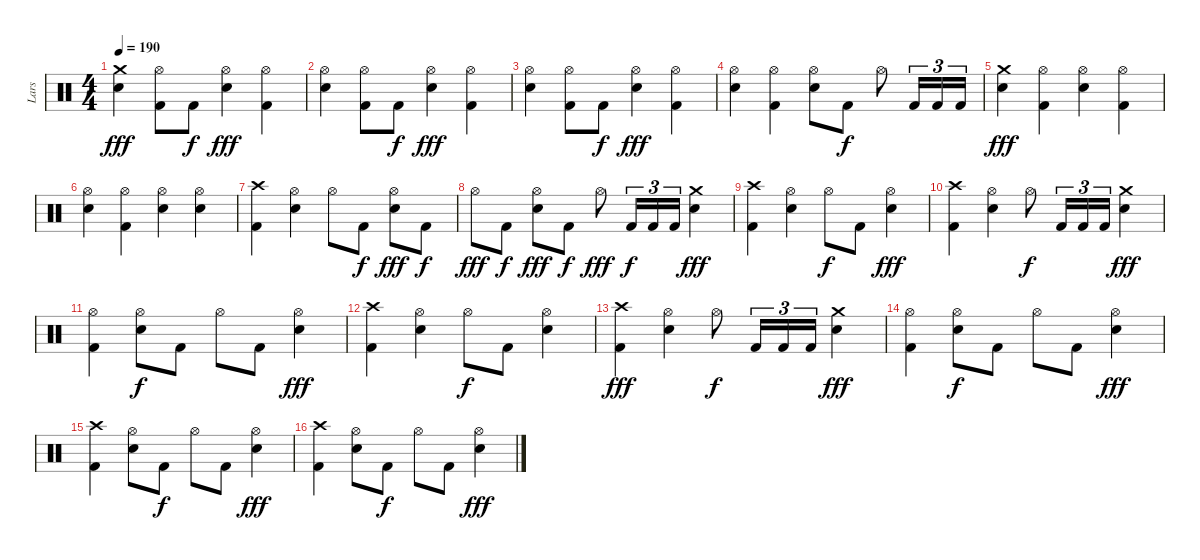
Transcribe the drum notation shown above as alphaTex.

\track ("Lars" "Lars") {instrument percussion}
\staff {score}
\articulation defaults
\ts (4 4)
\tempo 190
\clef neutral
\ks c
("Crash medium (hit)" "Snare (hit) 2").4{dy fff} ("Hi-Hat (open)" "Kick (hit) 2").8 "Kick (hit) 2".8{dy f} ("Hi-Hat (open)" "Snare (hit) 2").4{dy fff} ("Hi-Hat (open)" "Kick (hit) 2").4 |
("Hi-Hat (open)" "Snare (hit) 2").4 ("Hi-Hat (open)" "Kick (hit) 2").8 "Kick (hit) 2".8{dy f} ("Hi-Hat (open)" "Snare (hit) 2").4{dy fff} ("Hi-Hat (open)" "Kick (hit) 2").4 |
("Hi-Hat (open)" "Snare (hit) 2").4 ("Hi-Hat (open)" "Kick (hit) 2").8 "Kick (hit) 2".8{dy f} ("Hi-Hat (open)" "Snare (hit) 2").4{dy fff} ("Hi-Hat (open)" "Kick (hit) 2").4 |
("Hi-Hat (open)" "Snare (hit) 2").4 ("Hi-Hat (open)" "Kick (hit) 2").4 ("Hi-Hat (open)" "Snare (hit) 2").8 "Kick (hit) 2".8{dy f} "Hi-Hat (open)".8 "Kick (hit) 2".16{tu (3 2)} "Kick (hit) 2".16{tu (3 2)} "Kick (hit) 2".16{tu (3 2)} |
("Crash medium (hit)" "Snare (hit) 2").4{dy fff} ("Hi-Hat (open)" "Kick (hit) 2").4 ("Hi-Hat (open)" "Snare (hit) 2").4 ("Hi-Hat (open)" "Kick (hit) 2").4 |
("Hi-Hat (open)" "Snare (hit) 2").4 ("Hi-Hat (open)" "Kick (hit) 2").4 ("Hi-Hat (open)" "Snare (hit) 2").4 ("Hi-Hat (open)" "Snare (hit) 2").4 |
("Crash high (hit)" "Kick (hit) 2").4 ("Hi-Hat (open)" "Snare (hit) 2").4 "Hi-Hat (open)".8 "Kick (hit) 2".8{dy f} ("Hi-Hat (open)" "Snare (hit) 2").8{dy fff} "Kick (hit) 2".8{dy f} |
"Hi-Hat (open)".8{dy fff} "Kick (hit) 2".8{dy f} ("Hi-Hat (open)" "Snare (hit) 2").8{dy fff} "Kick (hit) 2".8{dy f} "Hi-Hat (open)".8{dy fff} "Kick (hit) 2".16{tu (3 2) dy f} "Kick (hit) 2".16{tu (3 2)} "Kick (hit) 2".16{tu (3 2)} ("Crash medium (hit)" "Snare (hit) 2").4{dy fff} |
("Crash high (hit)" "Kick (hit) 2").4 ("Hi-Hat (open)" "Snare (hit) 2").4 "Hi-Hat (open)".8{dy f} "Kick (hit) 2".8 ("Hi-Hat (open)" "Snare (hit) 2").4{dy fff} |
("Crash high (hit)" "Kick (hit) 2").4 ("Hi-Hat (open)" "Snare (hit) 2").4 "Hi-Hat (open)".8{dy f} "Kick (hit) 2".16{tu (3 2)} "Kick (hit) 2".16{tu (3 2)} "Kick (hit) 2".16{tu (3 2)} ("Crash medium (hit)" "Snare (hit) 2").4{dy fff} |
("Hi-Hat (open)" "Kick (hit) 2").4 ("Hi-Hat (open)" "Snare (hit) 2").8{dy f} "Kick (hit) 2".8 "Hi-Hat (open)".8 "Kick (hit) 2".8 ("Hi-Hat (open)" "Snare (hit) 2").4{dy fff} |
("Crash high (hit)" "Kick (hit) 2").4 ("Hi-Hat (open)" "Snare (hit) 2").4 "Hi-Hat (open)".8{dy f} "Kick (hit) 2".8 ("Hi-Hat (open)" "Snare (hit) 2").4 |
("Crash high (hit)" "Kick (hit) 2").4{dy fff} ("Hi-Hat (open)" "Snare (hit) 2").4 "Hi-Hat (open)".8{dy f} "Kick (hit) 2".16{tu (3 2)} "Kick (hit) 2".16{tu (3 2)} "Kick (hit) 2".16{tu (3 2)} ("Crash medium (hit)" "Snare (hit) 2").4{dy fff} |
("Hi-Hat (open)" "Kick (hit) 2").4 ("Hi-Hat (open)" "Snare (hit) 2").8{dy f} "Kick (hit) 2".8 "Hi-Hat (open)".8 "Kick (hit) 2".8 ("Hi-Hat (open)" "Snare (hit) 2").4{dy fff} |
("Crash high (hit)" "Kick (hit) 2").4 ("Hi-Hat (open)" "Snare (hit) 2").8 "Kick (hit) 2".8{dy f} "Hi-Hat (open)".8 "Kick (hit) 2".8 ("Hi-Hat (open)" "Snare (hit) 2").4{dy fff} |
("Crash high (hit)" "Kick (hit) 2").4 ("Hi-Hat (open)" "Snare (hit) 2").8 "Kick (hit) 2".8{dy f} "Hi-Hat (open)".8 "Kick (hit) 2".8 ("Hi-Hat (open)" "Snare (hit) 2").4{dy fff}
